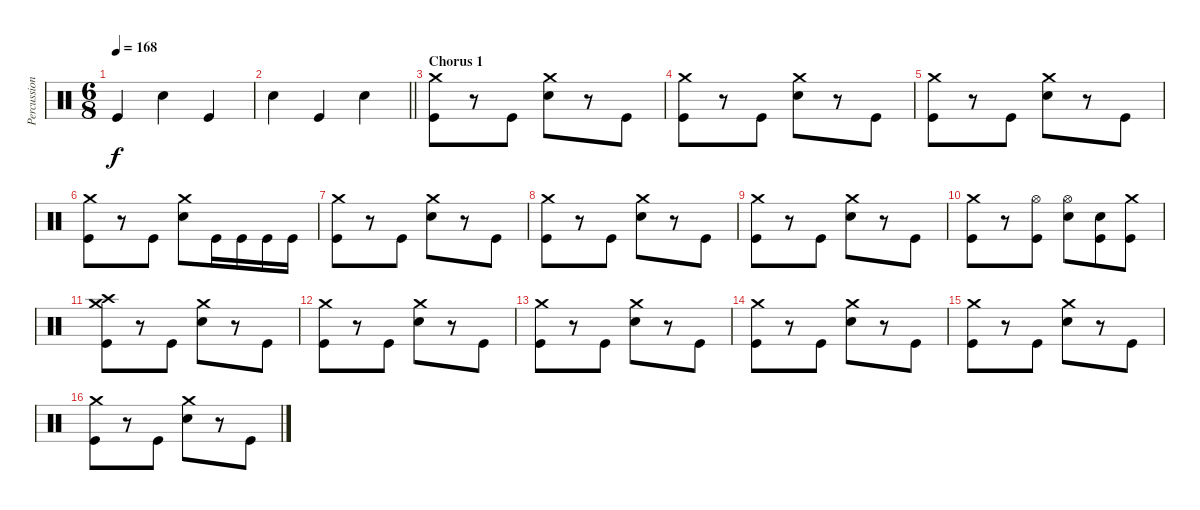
\track ("Percussion" "Percussion") {instrument percussion}
\staff {score}
\articulation defaults
\ts (6 8)
\tempo 168
\clef neutral
\ks c "Kick (hit)".4{dy f} "Snare (hit) 2".4 "Kick (hit)".4
|
\barLineRight lightlight "Snare (hit) 2".4 "Kick (hit)".4 "Snare (hit) 2".4
|
\section ("" "Chorus 1")
("Crash medium (hit)" "Kick (hit)").8 r.8 "Kick (hit)".8 ("Crash medium (hit)" "Snare (hit) 2").8 r.8 "Kick (hit)".8 |
("Crash medium (hit)" "Kick (hit)").8 r.8 "Kick (hit)".8 ("Crash medium (hit)" "Snare (hit) 2").8 r.8 "Kick (hit)".8 |
("Crash medium (hit)" "Kick (hit)").8 r.8 "Kick (hit)".8 ("Crash medium (hit)" "Snare (hit) 2").8 r.8 "Kick (hit)".8 |
("Crash medium (hit)" "Kick (hit)").8 r.8 "Kick (hit)".8 ("Crash medium (hit)" "Snare (hit) 2").8 "Kick (hit)".16 "Kick (hit)".16 "Kick (hit)".16 "Kick (hit)".16 |
("Crash medium (hit)" "Kick (hit)").8 r.8 "Kick (hit)".8 ("Crash medium (hit)" "Snare (hit) 2").8 r.8 "Kick (hit)".8 |
("Crash medium (hit)" "Kick (hit)").8 r.8 "Kick (hit)".8 ("Crash medium (hit)" "Snare (hit) 2").8 r.8 "Kick (hit)".8 |
("Crash medium (hit)" "Kick (hit)").8 r.8 "Kick (hit)".8 ("Crash medium (hit)" "Snare (hit) 2").8 r.8 "Kick (hit)".8 |
("Crash medium (hit)" "Kick (hit)").8 r.8 ("Hi-Hat (open)" "Kick (hit)").8 ("Hi-Hat (open)" "Snare (hit) 2").8 ("Snare (hit) 2" "Kick (hit)").8 ("Crash medium (hit)" "Kick (hit)").8 |
("Crash medium (hit)" "Crash high (hit)" "Kick (hit)").8 r.8 "Kick (hit)".8 ("Crash medium (hit)" "Snare (hit) 2").8 r.8 "Kick (hit)".8 |
("Crash medium (hit)" "Kick (hit)").8 r.8 "Kick (hit)".8 ("Crash medium (hit)" "Snare (hit) 2").8 r.8 "Kick (hit)".8 |
("Crash medium (hit)" "Kick (hit)").8 r.8 "Kick (hit)".8 ("Crash medium (hit)" "Snare (hit) 2").8 r.8 "Kick (hit)".8 |
("Crash medium (hit)" "Kick (hit)").8 r.8 "Kick (hit)".8 ("Crash medium (hit)" "Snare (hit) 2").8 r.8 "Kick (hit)".8 |
("Crash medium (hit)" "Kick (hit)").8 r.8 "Kick (hit)".8 ("Crash medium (hit)" "Snare (hit) 2").8 r.8 "Kick (hit)".8 |
("Crash medium (hit)" "Kick (hit)").8 r.8 "Kick (hit)".8 ("Crash medium (hit)" "Snare (hit) 2").8 r.8 "Kick (hit)".8
